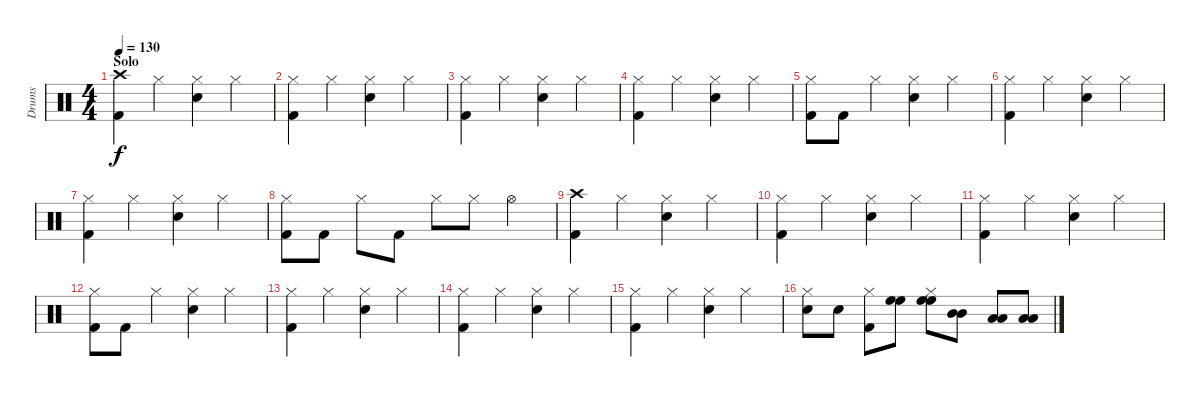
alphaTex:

\track ("Drums" "Drums") {instrument percussion}
\staff {score}
\articulation defaults
\ts (4 4)
\section ("" "Solo")
\tempo 130
\clef neutral
\ks c
("Crash high (hit)" "Kick (hit) 2").4{dy f} "Hi-Hat (closed)".4 ("Hi-Hat (closed)" "Snare (hit) 2").4 "Hi-Hat (closed)".4 |
("Hi-Hat (closed)" "Kick (hit) 2").4 "Hi-Hat (closed)".4 ("Hi-Hat (closed)" "Snare (hit) 2").4 "Hi-Hat (closed)".4 |
("Hi-Hat (closed)" "Kick (hit) 2").4 "Hi-Hat (closed)".4 ("Hi-Hat (closed)" "Snare (hit) 2").4 "Hi-Hat (closed)".4 |
("Hi-Hat (closed)" "Kick (hit) 2").4 "Hi-Hat (closed)".4 ("Hi-Hat (closed)" "Snare (hit) 2").4 "Hi-Hat (closed)".4 |
("Hi-Hat (closed)" "Kick (hit) 2").8 "Kick (hit) 2".8 "Hi-Hat (closed)".4 ("Hi-Hat (closed)" "Snare (hit) 2").4 "Hi-Hat (closed)".4 |
("Hi-Hat (closed)" "Kick (hit) 2").4 "Hi-Hat (closed)".4 ("Hi-Hat (closed)" "Snare (hit) 2").4 "Hi-Hat (closed)".4 |
("Hi-Hat (closed)" "Kick (hit) 2").4 "Hi-Hat (closed)".4 ("Hi-Hat (closed)" "Snare (hit) 2").4 "Hi-Hat (closed)".4 |
("Hi-Hat (closed)" "Kick (hit) 2").8 "Kick (hit) 2".8 "Hi-Hat (closed)".8 "Kick (hit) 2".8 "Hi-Hat (closed)".8 "Hi-Hat (closed)".8 "Hi-Hat (open)".4 |
("Crash high (hit)" "Kick (hit) 2").4 "Hi-Hat (closed)".4 ("Hi-Hat (closed)" "Snare (hit) 2").4 "Hi-Hat (closed)".4 |
("Hi-Hat (closed)" "Kick (hit) 2").4 "Hi-Hat (closed)".4 ("Hi-Hat (closed)" "Snare (hit) 2").4 "Hi-Hat (closed)".4 |
("Hi-Hat (closed)" "Kick (hit) 2").4 "Hi-Hat (closed)".4 ("Hi-Hat (closed)" "Snare (hit) 2").4 "Hi-Hat (closed)".4 |
("Hi-Hat (closed)" "Kick (hit) 2").8 "Kick (hit) 2".8 "Hi-Hat (closed)".4 ("Hi-Hat (closed)" "Snare (hit) 2").4 "Hi-Hat (closed)".4 |
("Hi-Hat (closed)" "Kick (hit) 2").4 "Hi-Hat (closed)".4 ("Hi-Hat (closed)" "Snare (hit) 2").4 "Hi-Hat (closed)".4 |
("Hi-Hat (closed)" "Kick (hit) 2").4 "Hi-Hat (closed)".4 ("Hi-Hat (closed)" "Snare (hit) 2").4 "Hi-Hat (closed)".4 |
("Hi-Hat (closed)" "Kick (hit) 2").4 "Hi-Hat (closed)".4 ("Hi-Hat (closed)" "Snare (hit) 2").4 "Hi-Hat (closed)".4 |
("Hi-Hat (closed)" "Snare (hit) 2").8 "Snare (hit) 2".8 ("Hi-Hat (closed)" "Kick (hit) 2").8 ("High Floor Tom (hit)" "High Floor Tom (hit)").8 ("Hi-Hat (closed)" "High Floor Tom (hit)" "High Floor Tom (hit)").8 ("Mid Tom (hit)" "Mid Tom (hit)").8 ("Low Tom (hit)" "Low Tom (hit)").8 ("Low Floor Tom (hit)" "Low Floor Tom (hit)").8
